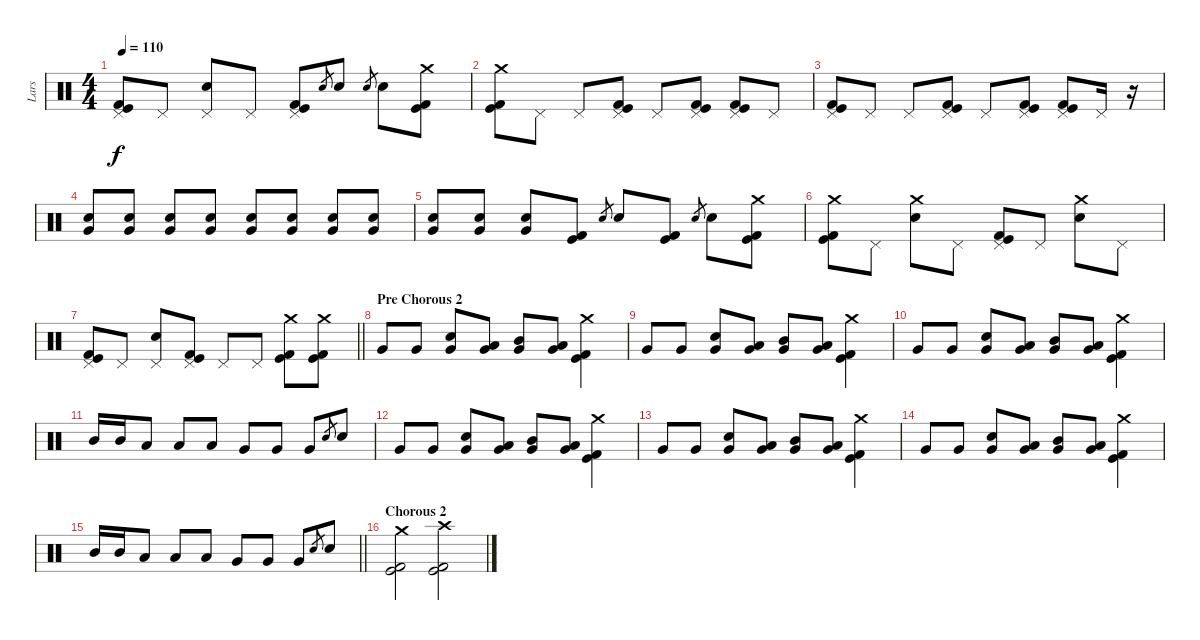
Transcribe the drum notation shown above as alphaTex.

\track ("Lars" "Lars") {instrument percussion}
\staff {score}
\articulation defaults
\ts (4 4)
\tempo 110
\clef neutral
\ks c
("Pedal Hi-Hat (hit)" "Kick (hit)" "Kick (hit) 2").8{dy f} "Pedal Hi-Hat (hit)".8 ("Pedal Hi-Hat (hit)" "Electric Snare (hit)").8 "Pedal Hi-Hat (hit)".8 ("Pedal Hi-Hat (hit)" "Kick (hit)" "Kick (hit) 2").8 "Electric Snare (hit)".8{gr} "Electric Snare (hit)".8 "Electric Snare (hit)".8{gr} "Electric Snare (hit)".8 ("Crash medium (hit)" "Kick (hit)" "Kick (hit) 2").8 |
("Crash medium (hit)" "Kick (hit)" "Kick (hit) 2").8 "Pedal Hi-Hat (hit)".8 "Pedal Hi-Hat (hit)".8 ("Pedal Hi-Hat (hit)" "Kick (hit)" "Kick (hit) 2").8 "Pedal Hi-Hat (hit)".8 ("Pedal Hi-Hat (hit)" "Kick (hit)" "Kick (hit) 2").8 ("Pedal Hi-Hat (hit)" "Kick (hit)" "Kick (hit) 2").8 "Pedal Hi-Hat (hit)".8 |
("Pedal Hi-Hat (hit)" "Kick (hit)" "Kick (hit) 2").8 "Pedal Hi-Hat (hit)".8 "Pedal Hi-Hat (hit)".8 ("Pedal Hi-Hat (hit)" "Kick (hit)" "Kick (hit) 2").8 "Pedal Hi-Hat (hit)".8 ("Pedal Hi-Hat (hit)" "Kick (hit)" "Kick (hit) 2").8 ("Pedal Hi-Hat (hit)" "Kick (hit)" "Kick (hit) 2").8 "Pedal Hi-Hat (hit)".16 r.16{volume 5} |
("Electric Snare (hit)" "Very Low Tom (hit)").8{volume 16} ("Electric Snare (hit)" "Very Low Tom (hit)").8 ("Electric Snare (hit)" "Very Low Tom (hit)").8 ("Electric Snare (hit)" "Very Low Tom (hit)").8 ("Electric Snare (hit)" "Very Low Tom (hit)").8 ("Electric Snare (hit)" "Very Low Tom (hit)").8 ("Electric Snare (hit)" "Very Low Tom (hit)").8 ("Electric Snare (hit)" "Very Low Tom (hit)").8 |
("Electric Snare (hit)" "Very Low Tom (hit)").8 ("Electric Snare (hit)" "Very Low Tom (hit)").8 ("Electric Snare (hit)" "Very Low Tom (hit)").8 ("Kick (hit)" "Kick (hit) 2").8 "Electric Snare (hit)".8{gr} "Electric Snare (hit)".8 ("Kick (hit)" "Kick (hit) 2").8 "Electric Snare (hit)".8{gr} "Electric Snare (hit)".8 ("Crash medium (hit)" "Kick (hit)" "Kick (hit) 2").8 |
("Crash medium (hit)" "Kick (hit)" "Kick (hit) 2").8 "Pedal Hi-Hat (hit)".8 ("Crash medium (hit)" "Electric Snare (hit)").8 "Pedal Hi-Hat (hit)".8 ("Pedal Hi-Hat (hit)" "Kick (hit)" "Kick (hit) 2").8 "Pedal Hi-Hat (hit)".8 ("Crash medium (hit)" "Electric Snare (hit)").8 "Pedal Hi-Hat (hit)".8 |
\barLineRight lightlight
("Pedal Hi-Hat (hit)" "Kick (hit)" "Kick (hit) 2").8 "Pedal Hi-Hat (hit)".8 ("Pedal Hi-Hat (hit)" "Electric Snare (hit)").8 ("Pedal Hi-Hat (hit)" "Kick (hit)" "Kick (hit) 2").8 "Pedal Hi-Hat (hit)".8 "Pedal Hi-Hat (hit)".8 ("Crash medium (hit)" "Kick (hit)" "Kick (hit) 2").8 ("Crash medium (hit)" "Kick (hit)" "Kick (hit) 2").8 |
\section ("" "Pre Chorous 2")
"Very Low Tom (hit)".8 "Very Low Tom (hit)".8 ("Very Low Tom (hit)" "Electric Snare (hit)").8 ("Very Low Tom (hit)" "Low Tom (hit)").8 ("Very Low Tom (hit)" "Mid Tom (hit)").8 ("Very Low Tom (hit)" "Low Tom (hit)").8 ("Crash medium (hit)" "Kick (hit)" "Kick (hit) 2").4 |
"Very Low Tom (hit)".8 "Very Low Tom (hit)".8 ("Very Low Tom (hit)" "Electric Snare (hit)").8 ("Very Low Tom (hit)" "Low Tom (hit)").8 ("Very Low Tom (hit)" "Mid Tom (hit)").8 ("Very Low Tom (hit)" "Low Tom (hit)").8 ("Crash medium (hit)" "Kick (hit)" "Kick (hit) 2").4 |
"Very Low Tom (hit)".8 "Very Low Tom (hit)".8 ("Very Low Tom (hit)" "Electric Snare (hit)").8 ("Very Low Tom (hit)" "Low Tom (hit)").8 ("Very Low Tom (hit)" "Mid Tom (hit)").8 ("Very Low Tom (hit)" "Low Tom (hit)").8 ("Crash medium (hit)" "Kick (hit)" "Kick (hit) 2").4 |
"Mid Tom (hit)".16 "Mid Tom (hit)".16 "Low Tom (hit)".8 "Low Tom (hit)".8 "Low Tom (hit)".8 "Very Low Tom (hit)".8 "Very Low Tom (hit)".8 "Very Low Tom (hit)".8 "Electric Snare (hit)".8{gr} "Electric Snare (hit)".8 |
"Very Low Tom (hit)".8 "Very Low Tom (hit)".8 ("Very Low Tom (hit)" "Electric Snare (hit)").8 ("Very Low Tom (hit)" "Low Tom (hit)").8 ("Very Low Tom (hit)" "Mid Tom (hit)").8 ("Very Low Tom (hit)" "Low Tom (hit)").8 ("Crash medium (hit)" "Kick (hit)" "Kick (hit) 2").4 |
"Very Low Tom (hit)".8 "Very Low Tom (hit)".8 ("Very Low Tom (hit)" "Electric Snare (hit)").8 ("Very Low Tom (hit)" "Low Tom (hit)").8 ("Very Low Tom (hit)" "Mid Tom (hit)").8 ("Very Low Tom (hit)" "Low Tom (hit)").8 ("Crash medium (hit)" "Kick (hit)" "Kick (hit) 2").4 |
"Very Low Tom (hit)".8 "Very Low Tom (hit)".8 ("Very Low Tom (hit)" "Electric Snare (hit)").8 ("Very Low Tom (hit)" "Low Tom (hit)").8 ("Very Low Tom (hit)" "Mid Tom (hit)").8 ("Very Low Tom (hit)" "Low Tom (hit)").8 ("Crash medium (hit)" "Kick (hit)" "Kick (hit) 2").4 |
\barLineRight lightlight "Mid Tom (hit)".16 "Mid Tom (hit)".16 "Low Tom (hit)".8 "Low Tom (hit)".8 "Low Tom (hit)".8 "Very Low Tom (hit)".8 "Very Low Tom (hit)".8 "Very Low Tom (hit)".8 "Electric Snare (hit)".8{gr} "Electric Snare (hit)".8
|
\section ("" "Chorous 2")
("Crash medium (hit)" "Kick (hit)" "Kick (hit) 2").2 ("Crash high (hit)" "Kick (hit)" "Kick (hit) 2").2
